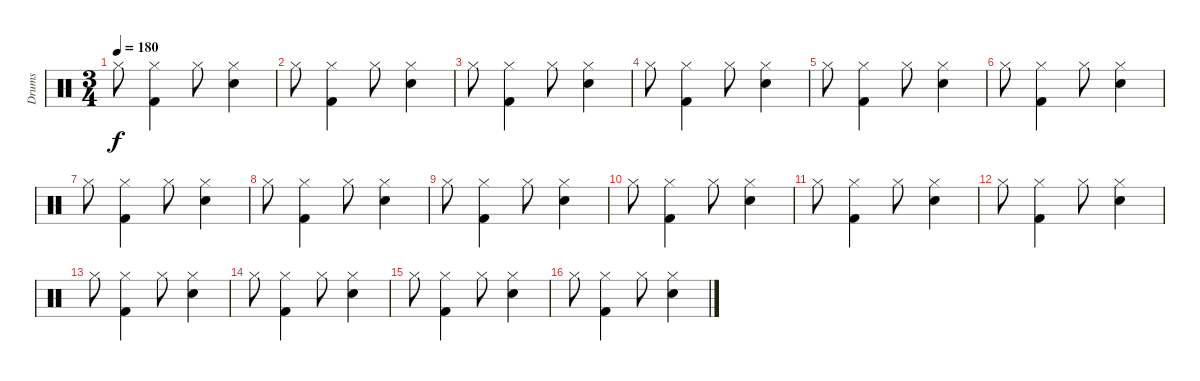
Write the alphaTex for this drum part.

\track ("Drums" "Drums") {instrument percussion}
\staff {score}
\articulation defaults
\ts (3 4)
\tempo 180
\clef neutral
\ks c "Hi-Hat (closed)".8{dy f}
("Hi-Hat (closed)" "Kick (hit) 2").4 "Hi-Hat (closed)".8 ("Hi-Hat (closed)" "Snare (hit) 2").4 |
"Hi-Hat (closed)".8 ("Hi-Hat (closed)" "Kick (hit) 2").4 "Hi-Hat (closed)".8 ("Hi-Hat (closed)" "Snare (hit) 2").4 |
"Hi-Hat (closed)".8 ("Hi-Hat (closed)" "Kick (hit) 2").4 "Hi-Hat (closed)".8 ("Hi-Hat (closed)" "Snare (hit) 2").4 |
"Hi-Hat (closed)".8 ("Hi-Hat (closed)" "Kick (hit) 2").4 "Hi-Hat (closed)".8 ("Hi-Hat (closed)" "Snare (hit) 2").4 |
"Hi-Hat (closed)".8 ("Hi-Hat (closed)" "Kick (hit) 2").4 "Hi-Hat (closed)".8 ("Hi-Hat (closed)" "Snare (hit) 2").4 |
"Hi-Hat (closed)".8 ("Hi-Hat (closed)" "Kick (hit) 2").4 "Hi-Hat (closed)".8 ("Hi-Hat (closed)" "Snare (hit) 2").4 |
"Hi-Hat (closed)".8 ("Hi-Hat (closed)" "Kick (hit) 2").4 "Hi-Hat (closed)".8 ("Hi-Hat (closed)" "Snare (hit) 2").4 |
"Hi-Hat (closed)".8 ("Hi-Hat (closed)" "Kick (hit) 2").4 "Hi-Hat (closed)".8 ("Hi-Hat (closed)" "Snare (hit) 2").4 |
"Hi-Hat (closed)".8 ("Hi-Hat (closed)" "Kick (hit) 2").4 "Hi-Hat (closed)".8 ("Hi-Hat (closed)" "Snare (hit) 2").4 |
"Hi-Hat (closed)".8 ("Hi-Hat (closed)" "Kick (hit) 2").4 "Hi-Hat (closed)".8 ("Hi-Hat (closed)" "Snare (hit) 2").4 |
"Hi-Hat (closed)".8 ("Hi-Hat (closed)" "Kick (hit) 2").4 "Hi-Hat (closed)".8 ("Hi-Hat (closed)" "Snare (hit) 2").4 |
"Hi-Hat (closed)".8 ("Hi-Hat (closed)" "Kick (hit) 2").4 "Hi-Hat (closed)".8 ("Hi-Hat (closed)" "Snare (hit) 2").4 |
"Hi-Hat (closed)".8 ("Hi-Hat (closed)" "Kick (hit) 2").4 "Hi-Hat (closed)".8 ("Hi-Hat (closed)" "Snare (hit) 2").4 |
"Hi-Hat (closed)".8 ("Hi-Hat (closed)" "Kick (hit) 2").4 "Hi-Hat (closed)".8 ("Hi-Hat (closed)" "Snare (hit) 2").4 |
"Hi-Hat (closed)".8 ("Hi-Hat (closed)" "Kick (hit) 2").4 "Hi-Hat (closed)".8 ("Hi-Hat (closed)" "Snare (hit) 2").4 |
"Hi-Hat (closed)".8 ("Hi-Hat (closed)" "Kick (hit) 2").4 "Hi-Hat (closed)".8 ("Hi-Hat (closed)" "Snare (hit) 2").4
